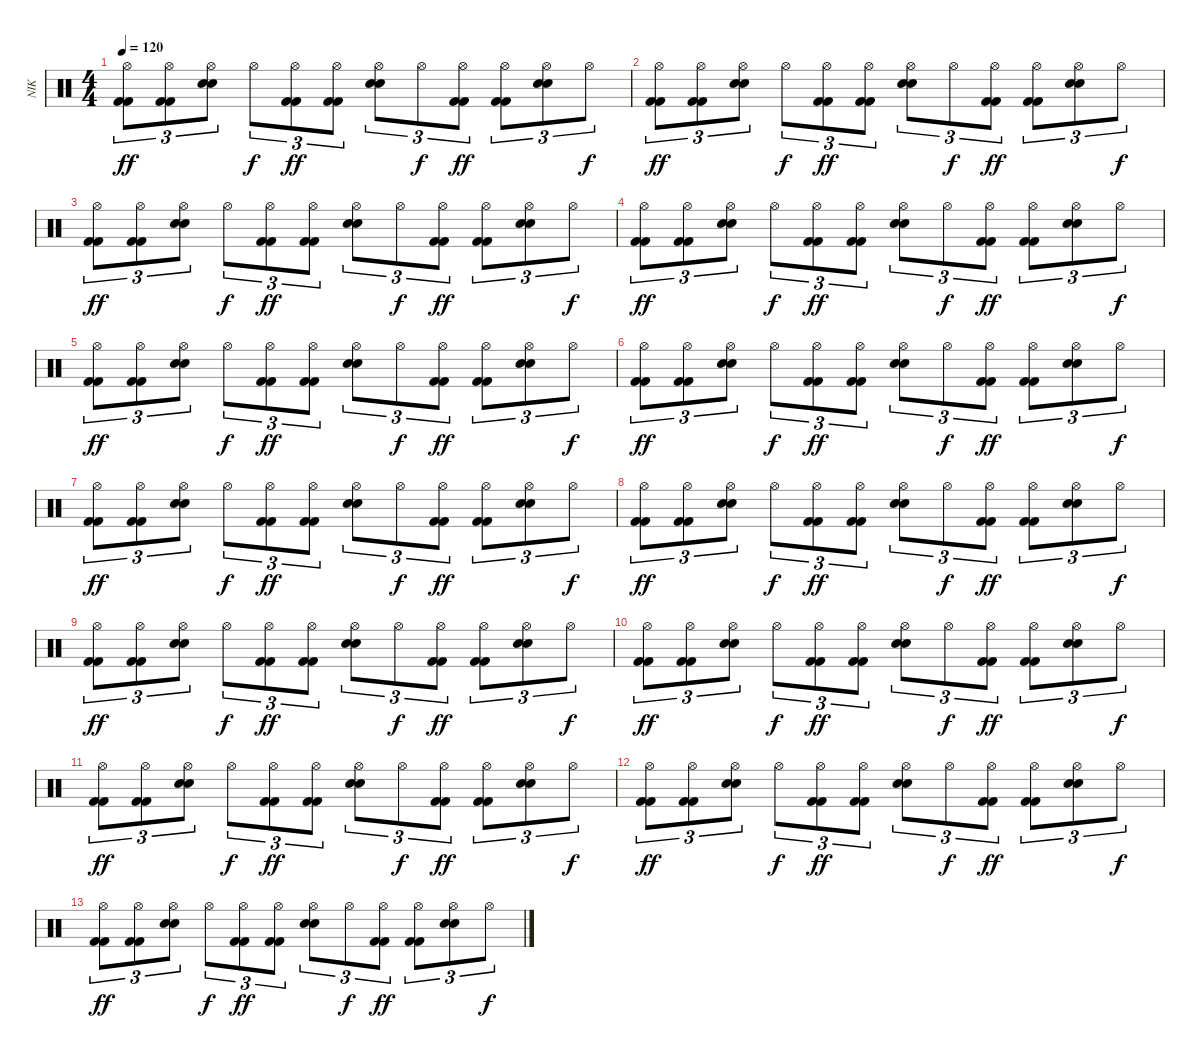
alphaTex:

\track ("NIK" "NIK") {instrument percussion}
\staff {score}
\articulation defaults
\ts (4 4)
\tempo 120
\clef neutral
\ks c
("Kick (hit) 2" "Kick (hit) 2" "Hi-Hat (open)").8{tu (3 2) dy ff} ("Kick (hit) 2" "Kick (hit) 2" "Hi-Hat (open)").8{tu (3 2)} ("Electric Snare (hit)" "Electric Snare (hit)" "Hi-Hat (open)").8{tu (3 2)} "Hi-Hat (open)".8{tu (3 2) dy f} ("Kick (hit) 2" "Kick (hit) 2" "Hi-Hat (open)").8{tu (3 2) dy ff} ("Kick (hit) 2" "Kick (hit) 2" "Hi-Hat (open)").8{tu (3 2)} ("Electric Snare (hit)" "Electric Snare (hit)" "Hi-Hat (open)").8{tu (3 2)} "Hi-Hat (open)".8{tu (3 2) dy f} ("Kick (hit) 2" "Kick (hit) 2" "Hi-Hat (open)").8{tu (3 2) dy ff} ("Kick (hit) 2" "Kick (hit) 2" "Hi-Hat (open)").8{tu (3 2)} ("Electric Snare (hit)" "Electric Snare (hit)" "Hi-Hat (open)").8{tu (3 2)} "Hi-Hat (open)".8{tu (3 2) dy f} |
("Kick (hit) 2" "Kick (hit) 2" "Hi-Hat (open)").8{tu (3 2) dy ff} ("Kick (hit) 2" "Kick (hit) 2" "Hi-Hat (open)").8{tu (3 2)} ("Electric Snare (hit)" "Electric Snare (hit)" "Hi-Hat (open)").8{tu (3 2)} "Hi-Hat (open)".8{tu (3 2) dy f} ("Kick (hit) 2" "Kick (hit) 2" "Hi-Hat (open)").8{tu (3 2) dy ff} ("Kick (hit) 2" "Kick (hit) 2" "Hi-Hat (open)").8{tu (3 2)} ("Electric Snare (hit)" "Electric Snare (hit)" "Hi-Hat (open)").8{tu (3 2)} "Hi-Hat (open)".8{tu (3 2) dy f} ("Kick (hit) 2" "Kick (hit) 2" "Hi-Hat (open)").8{tu (3 2) dy ff} ("Kick (hit) 2" "Kick (hit) 2" "Hi-Hat (open)").8{tu (3 2)} ("Electric Snare (hit)" "Electric Snare (hit)" "Hi-Hat (open)").8{tu (3 2)} "Hi-Hat (open)".8{tu (3 2) dy f} |
("Kick (hit) 2" "Kick (hit) 2" "Hi-Hat (open)").8{tu (3 2) dy ff} ("Kick (hit) 2" "Kick (hit) 2" "Hi-Hat (open)").8{tu (3 2)} ("Electric Snare (hit)" "Electric Snare (hit)" "Hi-Hat (open)").8{tu (3 2)} "Hi-Hat (open)".8{tu (3 2) dy f} ("Kick (hit) 2" "Kick (hit) 2" "Hi-Hat (open)").8{tu (3 2) dy ff} ("Kick (hit) 2" "Kick (hit) 2" "Hi-Hat (open)").8{tu (3 2)} ("Electric Snare (hit)" "Electric Snare (hit)" "Hi-Hat (open)").8{tu (3 2)} "Hi-Hat (open)".8{tu (3 2) dy f} ("Kick (hit) 2" "Kick (hit) 2" "Hi-Hat (open)").8{tu (3 2) dy ff} ("Kick (hit) 2" "Kick (hit) 2" "Hi-Hat (open)").8{tu (3 2)} ("Electric Snare (hit)" "Electric Snare (hit)" "Hi-Hat (open)").8{tu (3 2)} "Hi-Hat (open)".8{tu (3 2) dy f} |
("Kick (hit) 2" "Kick (hit) 2" "Hi-Hat (open)").8{tu (3 2) dy ff} ("Kick (hit) 2" "Kick (hit) 2" "Hi-Hat (open)").8{tu (3 2)} ("Electric Snare (hit)" "Electric Snare (hit)" "Hi-Hat (open)").8{tu (3 2)} "Hi-Hat (open)".8{tu (3 2) dy f} ("Kick (hit) 2" "Kick (hit) 2" "Hi-Hat (open)").8{tu (3 2) dy ff} ("Kick (hit) 2" "Kick (hit) 2" "Hi-Hat (open)").8{tu (3 2)} ("Electric Snare (hit)" "Electric Snare (hit)" "Hi-Hat (open)").8{tu (3 2)} "Hi-Hat (open)".8{tu (3 2) dy f} ("Kick (hit) 2" "Kick (hit) 2" "Hi-Hat (open)").8{tu (3 2) dy ff} ("Kick (hit) 2" "Kick (hit) 2" "Hi-Hat (open)").8{tu (3 2)} ("Electric Snare (hit)" "Electric Snare (hit)" "Hi-Hat (open)").8{tu (3 2)} "Hi-Hat (open)".8{tu (3 2) dy f} |
("Kick (hit) 2" "Kick (hit) 2" "Hi-Hat (open)").8{tu (3 2) dy ff} ("Kick (hit) 2" "Kick (hit) 2" "Hi-Hat (open)").8{tu (3 2)} ("Electric Snare (hit)" "Electric Snare (hit)" "Hi-Hat (open)").8{tu (3 2)} "Hi-Hat (open)".8{tu (3 2) dy f} ("Kick (hit) 2" "Kick (hit) 2" "Hi-Hat (open)").8{tu (3 2) dy ff} ("Kick (hit) 2" "Kick (hit) 2" "Hi-Hat (open)").8{tu (3 2)} ("Electric Snare (hit)" "Electric Snare (hit)" "Hi-Hat (open)").8{tu (3 2)} "Hi-Hat (open)".8{tu (3 2) dy f} ("Kick (hit) 2" "Kick (hit) 2" "Hi-Hat (open)").8{tu (3 2) dy ff} ("Kick (hit) 2" "Kick (hit) 2" "Hi-Hat (open)").8{tu (3 2)} ("Electric Snare (hit)" "Electric Snare (hit)" "Hi-Hat (open)").8{tu (3 2)} "Hi-Hat (open)".8{tu (3 2) dy f} |
("Kick (hit) 2" "Kick (hit) 2" "Hi-Hat (open)").8{tu (3 2) dy ff} ("Kick (hit) 2" "Kick (hit) 2" "Hi-Hat (open)").8{tu (3 2)} ("Electric Snare (hit)" "Electric Snare (hit)" "Hi-Hat (open)").8{tu (3 2)} "Hi-Hat (open)".8{tu (3 2) dy f} ("Kick (hit) 2" "Kick (hit) 2" "Hi-Hat (open)").8{tu (3 2) dy ff} ("Kick (hit) 2" "Kick (hit) 2" "Hi-Hat (open)").8{tu (3 2)} ("Electric Snare (hit)" "Electric Snare (hit)" "Hi-Hat (open)").8{tu (3 2)} "Hi-Hat (open)".8{tu (3 2) dy f} ("Kick (hit) 2" "Kick (hit) 2" "Hi-Hat (open)").8{tu (3 2) dy ff} ("Kick (hit) 2" "Kick (hit) 2" "Hi-Hat (open)").8{tu (3 2)} ("Electric Snare (hit)" "Electric Snare (hit)" "Hi-Hat (open)").8{tu (3 2)} "Hi-Hat (open)".8{tu (3 2) dy f} |
("Kick (hit) 2" "Kick (hit) 2" "Hi-Hat (open)").8{tu (3 2) dy ff} ("Kick (hit) 2" "Kick (hit) 2" "Hi-Hat (open)").8{tu (3 2)} ("Electric Snare (hit)" "Electric Snare (hit)" "Hi-Hat (open)").8{tu (3 2)} "Hi-Hat (open)".8{tu (3 2) dy f} ("Kick (hit) 2" "Kick (hit) 2" "Hi-Hat (open)").8{tu (3 2) dy ff} ("Kick (hit) 2" "Kick (hit) 2" "Hi-Hat (open)").8{tu (3 2)} ("Electric Snare (hit)" "Electric Snare (hit)" "Hi-Hat (open)").8{tu (3 2)} "Hi-Hat (open)".8{tu (3 2) dy f} ("Kick (hit) 2" "Kick (hit) 2" "Hi-Hat (open)").8{tu (3 2) dy ff} ("Kick (hit) 2" "Kick (hit) 2" "Hi-Hat (open)").8{tu (3 2)} ("Electric Snare (hit)" "Electric Snare (hit)" "Hi-Hat (open)").8{tu (3 2)} "Hi-Hat (open)".8{tu (3 2) dy f} |
("Kick (hit) 2" "Kick (hit) 2" "Hi-Hat (open)").8{tu (3 2) dy ff} ("Kick (hit) 2" "Kick (hit) 2" "Hi-Hat (open)").8{tu (3 2)} ("Electric Snare (hit)" "Electric Snare (hit)" "Hi-Hat (open)").8{tu (3 2)} "Hi-Hat (open)".8{tu (3 2) dy f} ("Kick (hit) 2" "Kick (hit) 2" "Hi-Hat (open)").8{tu (3 2) dy ff} ("Kick (hit) 2" "Kick (hit) 2" "Hi-Hat (open)").8{tu (3 2)} ("Electric Snare (hit)" "Electric Snare (hit)" "Hi-Hat (open)").8{tu (3 2)} "Hi-Hat (open)".8{tu (3 2) dy f} ("Kick (hit) 2" "Kick (hit) 2" "Hi-Hat (open)").8{tu (3 2) dy ff} ("Kick (hit) 2" "Kick (hit) 2" "Hi-Hat (open)").8{tu (3 2)} ("Electric Snare (hit)" "Electric Snare (hit)" "Hi-Hat (open)").8{tu (3 2)} "Hi-Hat (open)".8{tu (3 2) dy f} |
("Kick (hit) 2" "Kick (hit) 2" "Hi-Hat (open)").8{tu (3 2) dy ff} ("Kick (hit) 2" "Kick (hit) 2" "Hi-Hat (open)").8{tu (3 2)} ("Electric Snare (hit)" "Electric Snare (hit)" "Hi-Hat (open)").8{tu (3 2)} "Hi-Hat (open)".8{tu (3 2) dy f} ("Kick (hit) 2" "Kick (hit) 2" "Hi-Hat (open)").8{tu (3 2) dy ff} ("Kick (hit) 2" "Kick (hit) 2" "Hi-Hat (open)").8{tu (3 2)} ("Electric Snare (hit)" "Electric Snare (hit)" "Hi-Hat (open)").8{tu (3 2)} "Hi-Hat (open)".8{tu (3 2) dy f} ("Kick (hit) 2" "Kick (hit) 2" "Hi-Hat (open)").8{tu (3 2) dy ff} ("Kick (hit) 2" "Kick (hit) 2" "Hi-Hat (open)").8{tu (3 2)} ("Electric Snare (hit)" "Electric Snare (hit)" "Hi-Hat (open)").8{tu (3 2)} "Hi-Hat (open)".8{tu (3 2) dy f} |
("Kick (hit) 2" "Kick (hit) 2" "Hi-Hat (open)").8{tu (3 2) dy ff} ("Kick (hit) 2" "Kick (hit) 2" "Hi-Hat (open)").8{tu (3 2)} ("Electric Snare (hit)" "Electric Snare (hit)" "Hi-Hat (open)").8{tu (3 2)} "Hi-Hat (open)".8{tu (3 2) dy f} ("Kick (hit) 2" "Kick (hit) 2" "Hi-Hat (open)").8{tu (3 2) dy ff} ("Kick (hit) 2" "Kick (hit) 2" "Hi-Hat (open)").8{tu (3 2)} ("Electric Snare (hit)" "Electric Snare (hit)" "Hi-Hat (open)").8{tu (3 2)} "Hi-Hat (open)".8{tu (3 2) dy f} ("Kick (hit) 2" "Kick (hit) 2" "Hi-Hat (open)").8{tu (3 2) dy ff} ("Kick (hit) 2" "Kick (hit) 2" "Hi-Hat (open)").8{tu (3 2)} ("Electric Snare (hit)" "Electric Snare (hit)" "Hi-Hat (open)").8{tu (3 2)} "Hi-Hat (open)".8{tu (3 2) dy f} |
("Kick (hit) 2" "Kick (hit) 2" "Hi-Hat (open)").8{tu (3 2) dy ff} ("Kick (hit) 2" "Kick (hit) 2" "Hi-Hat (open)").8{tu (3 2)} ("Electric Snare (hit)" "Electric Snare (hit)" "Hi-Hat (open)").8{tu (3 2)} "Hi-Hat (open)".8{tu (3 2) dy f} ("Kick (hit) 2" "Kick (hit) 2" "Hi-Hat (open)").8{tu (3 2) dy ff} ("Kick (hit) 2" "Kick (hit) 2" "Hi-Hat (open)").8{tu (3 2)} ("Electric Snare (hit)" "Electric Snare (hit)" "Hi-Hat (open)").8{tu (3 2)} "Hi-Hat (open)".8{tu (3 2) dy f} ("Kick (hit) 2" "Kick (hit) 2" "Hi-Hat (open)").8{tu (3 2) dy ff} ("Kick (hit) 2" "Kick (hit) 2" "Hi-Hat (open)").8{tu (3 2)} ("Electric Snare (hit)" "Electric Snare (hit)" "Hi-Hat (open)").8{tu (3 2)} "Hi-Hat (open)".8{tu (3 2) dy f} |
("Kick (hit) 2" "Kick (hit) 2" "Hi-Hat (open)").8{tu (3 2) dy ff} ("Kick (hit) 2" "Kick (hit) 2" "Hi-Hat (open)").8{tu (3 2)} ("Electric Snare (hit)" "Electric Snare (hit)" "Hi-Hat (open)").8{tu (3 2)} "Hi-Hat (open)".8{tu (3 2) dy f} ("Kick (hit) 2" "Kick (hit) 2" "Hi-Hat (open)").8{tu (3 2) dy ff} ("Kick (hit) 2" "Kick (hit) 2" "Hi-Hat (open)").8{tu (3 2)} ("Electric Snare (hit)" "Electric Snare (hit)" "Hi-Hat (open)").8{tu (3 2)} "Hi-Hat (open)".8{tu (3 2) dy f} ("Kick (hit) 2" "Kick (hit) 2" "Hi-Hat (open)").8{tu (3 2) dy ff} ("Kick (hit) 2" "Kick (hit) 2" "Hi-Hat (open)").8{tu (3 2)} ("Electric Snare (hit)" "Electric Snare (hit)" "Hi-Hat (open)").8{tu (3 2)} "Hi-Hat (open)".8{tu (3 2) dy f} |
("Kick (hit) 2" "Kick (hit) 2" "Hi-Hat (open)").8{tu (3 2) dy ff} ("Kick (hit) 2" "Kick (hit) 2" "Hi-Hat (open)").8{tu (3 2)} ("Electric Snare (hit)" "Electric Snare (hit)" "Hi-Hat (open)").8{tu (3 2)} "Hi-Hat (open)".8{tu (3 2) dy f} ("Kick (hit) 2" "Kick (hit) 2" "Hi-Hat (open)").8{tu (3 2) dy ff} ("Kick (hit) 2" "Kick (hit) 2" "Hi-Hat (open)").8{tu (3 2)} ("Electric Snare (hit)" "Electric Snare (hit)" "Hi-Hat (open)").8{tu (3 2)} "Hi-Hat (open)".8{tu (3 2) dy f} ("Kick (hit) 2" "Kick (hit) 2" "Hi-Hat (open)").8{tu (3 2) dy ff} ("Kick (hit) 2" "Kick (hit) 2" "Hi-Hat (open)").8{tu (3 2)} ("Electric Snare (hit)" "Electric Snare (hit)" "Hi-Hat (open)").8{tu (3 2)} "Hi-Hat (open)".8{tu (3 2) dy f}
